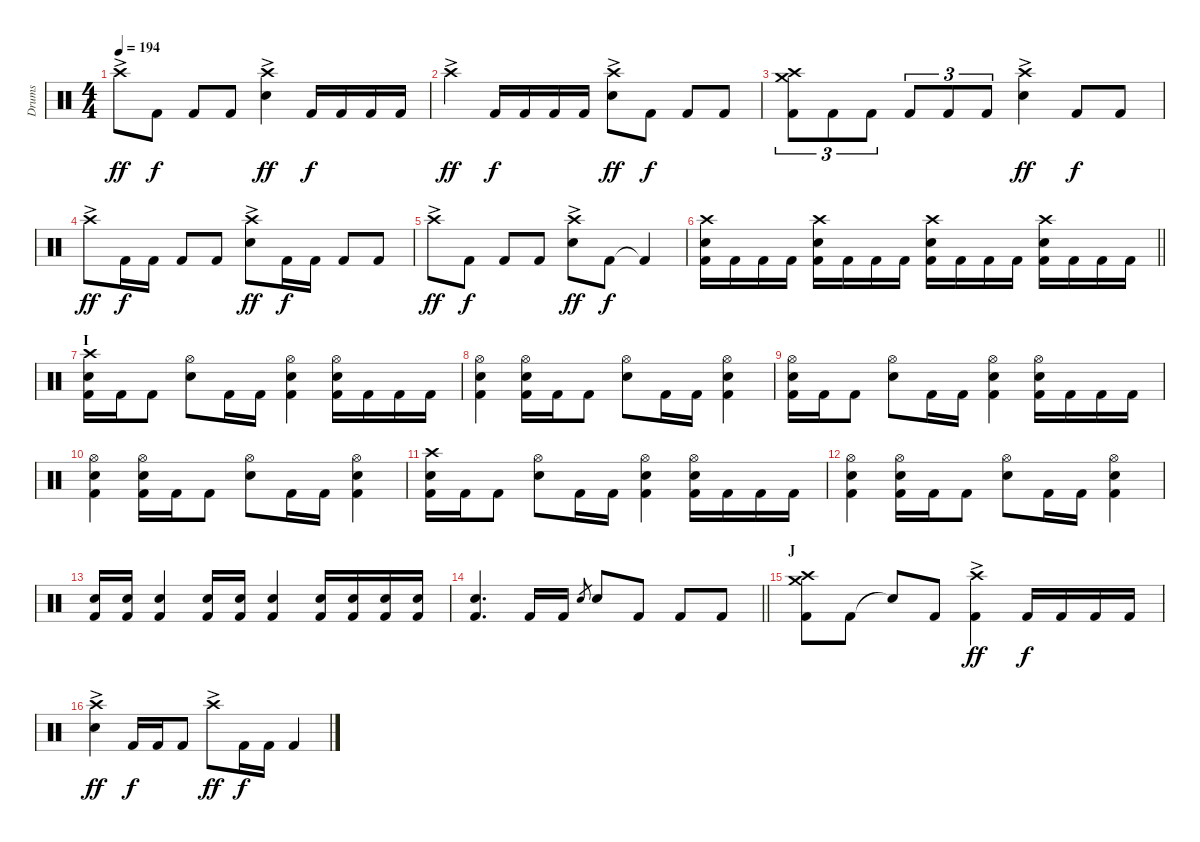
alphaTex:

\track ("Drums" "Drums") {instrument percussion}
\staff {score}
\articulation defaults
\ts (4 4)
\tempo 194
\clef neutral
\ks c "Crash high (hit)"{ac}.8{dy ff} "Kick (hit) 2".8{dy f} "Kick (hit) 2".8 "Kick (hit) 2".8
("Crash high (hit)"{ac} "Electric Snare (hit)").4{dy ff} "Kick (hit) 2".16{dy f} "Kick (hit) 2".16 "Kick (hit) 2".16 "Kick (hit) 2".16 |
"Crash high (hit)"{ac}.4{dy ff} "Kick (hit) 2".16{dy f} "Kick (hit) 2".16 "Kick (hit) 2".16 "Kick (hit) 2".16 ("Crash high (hit)"{ac} "Electric Snare (hit)").8{dy ff} "Kick (hit) 2".8{dy f} "Kick (hit) 2".8 "Kick (hit) 2".8 |
("Crash medium (hit)" "Crash high (hit)" "Kick (hit) 2").8{tu (3 2)} "Kick (hit) 2".8{tu (3 2)} "Kick (hit) 2".8{tu (3 2)} "Kick (hit) 2".8{tu (3 2)} "Kick (hit) 2".8{tu (3 2)} "Kick (hit) 2".8{tu (3 2)} ("Crash high (hit)"{ac} "Electric Snare (hit)").4{dy ff} "Kick (hit) 2".8{dy f} "Kick (hit) 2".8 |
"Crash high (hit)"{ac}.8{dy ff} "Kick (hit) 2".16{dy f} "Kick (hit) 2".16 "Kick (hit) 2".8 "Kick (hit) 2".8 ("Crash high (hit)"{ac} "Electric Snare (hit)").8{dy ff} "Kick (hit) 2".16{dy f} "Kick (hit) 2".16 "Kick (hit) 2".8 "Kick (hit) 2".8 |
"Crash high (hit)"{ac}.8{dy ff} "Kick (hit) 2".8{dy f} "Kick (hit) 2".8 "Kick (hit) 2".8 ("Crash high (hit)"{ac} "Electric Snare (hit)").8{dy ff} "Kick (hit) 2".8{dy f} "Kick (hit) 2"{t}.4 |
\barLineRight lightlight
("Crash high (hit)" "Electric Snare (hit)" "Kick (hit) 2").16 "Kick (hit) 2".16 "Kick (hit) 2".16 "Kick (hit) 2".16 ("Crash high (hit)" "Electric Snare (hit)" "Kick (hit) 2").16 "Kick (hit) 2".16 "Kick (hit) 2".16 "Kick (hit) 2".16 ("Crash high (hit)" "Electric Snare (hit)" "Kick (hit) 2").16 "Kick (hit) 2".16 "Kick (hit) 2".16 "Kick (hit) 2".16 ("Crash high (hit)" "Electric Snare (hit)" "Kick (hit) 2").16 "Kick (hit) 2".16 "Kick (hit) 2".16 "Kick (hit) 2".16 |
\section ("" "I")
("Crash high (hit)" "Electric Snare (hit)" "Kick (hit) 2").16 "Kick (hit) 2".16 "Kick (hit) 2".8 ("Hi-Hat (open)" "Electric Snare (hit)").8 "Kick (hit) 2".16 "Kick (hit) 2".16 ("Hi-Hat (open)" "Electric Snare (hit)" "Kick (hit) 2").4 ("Hi-Hat (open)" "Electric Snare (hit)" "Kick (hit) 2").16 "Kick (hit) 2".16 "Kick (hit) 2".16 "Kick (hit) 2".16 |
("Hi-Hat (open)" "Electric Snare (hit)" "Kick (hit) 2").4 ("Hi-Hat (open)" "Electric Snare (hit)" "Kick (hit) 2").16 "Kick (hit) 2".16 "Kick (hit) 2".8 ("Hi-Hat (open)" "Electric Snare (hit)").8 "Kick (hit) 2".16 "Kick (hit) 2".16 ("Hi-Hat (open)" "Electric Snare (hit)" "Kick (hit) 2").4 |
("Hi-Hat (open)" "Electric Snare (hit)" "Kick (hit) 2").16 "Kick (hit) 2".16 "Kick (hit) 2".8 ("Hi-Hat (open)" "Electric Snare (hit)").8 "Kick (hit) 2".16 "Kick (hit) 2".16 ("Hi-Hat (open)" "Electric Snare (hit)" "Kick (hit) 2").4 ("Hi-Hat (open)" "Electric Snare (hit)" "Kick (hit) 2").16 "Kick (hit) 2".16 "Kick (hit) 2".16 "Kick (hit) 2".16 |
("Hi-Hat (open)" "Electric Snare (hit)" "Kick (hit) 2").4 ("Hi-Hat (open)" "Electric Snare (hit)" "Kick (hit) 2").16 "Kick (hit) 2".16 "Kick (hit) 2".8 ("Hi-Hat (open)" "Electric Snare (hit)").8 "Kick (hit) 2".16 "Kick (hit) 2".16 ("Hi-Hat (open)" "Electric Snare (hit)" "Kick (hit) 2").4 |
("Crash high (hit)" "Electric Snare (hit)" "Kick (hit) 2").16 "Kick (hit) 2".16 "Kick (hit) 2".8 ("Hi-Hat (open)" "Electric Snare (hit)").8 "Kick (hit) 2".16 "Kick (hit) 2".16 ("Hi-Hat (open)" "Electric Snare (hit)" "Kick (hit) 2").4 ("Hi-Hat (open)" "Electric Snare (hit)" "Kick (hit) 2").16 "Kick (hit) 2".16 "Kick (hit) 2".16 "Kick (hit) 2".16 |
("Hi-Hat (open)" "Electric Snare (hit)" "Kick (hit) 2").4 ("Hi-Hat (open)" "Electric Snare (hit)" "Kick (hit) 2").16 "Kick (hit) 2".16 "Kick (hit) 2".8 ("Hi-Hat (open)" "Electric Snare (hit)").8 "Kick (hit) 2".16 "Kick (hit) 2".16 ("Hi-Hat (open)" "Electric Snare (hit)" "Kick (hit) 2").4 |
("Electric Snare (hit)" "Kick (hit) 2").16 ("Electric Snare (hit)" "Kick (hit) 2").16 ("Electric Snare (hit)" "Kick (hit) 2").4 ("Electric Snare (hit)" "Kick (hit) 2").16 ("Electric Snare (hit)" "Kick (hit) 2").16 ("Electric Snare (hit)" "Kick (hit) 2").4 ("Electric Snare (hit)" "Kick (hit) 2").16 ("Electric Snare (hit)" "Kick (hit) 2").16 ("Electric Snare (hit)" "Kick (hit) 2").16 ("Electric Snare (hit)" "Kick (hit) 2").16 |
\barLineRight lightlight
("Electric Snare (hit)" "Kick (hit) 2").4{d} "Kick (hit) 2".16 "Kick (hit) 2".16 "Electric Snare (hit)".8{gr} "Electric Snare (hit)".8 "Kick (hit) 2".8 "Kick (hit) 2".8 "Kick (hit) 2".8 |
\section ("" "J")
("Crash medium (hit)" "Crash high (hit)" "Kick (hit) 2").8 "Kick (hit) 2".8 "Snare (hit)"{t}.8 "Kick (hit) 2".8 ("Crash high (hit)"{ac} "Kick (hit) 2").4{dy ff} "Kick (hit) 2".16{dy f} "Kick (hit) 2".16 "Kick (hit) 2".16 "Kick (hit) 2".16 |
("Crash high (hit)"{ac} "Electric Snare (hit)").4{dy ff} "Kick (hit) 2".16{dy f} "Kick (hit) 2".16 "Kick (hit) 2".8 "Crash high (hit)"{ac}.8{dy ff} "Kick (hit) 2".16{dy f} "Kick (hit) 2".16 "Kick (hit) 2".4
